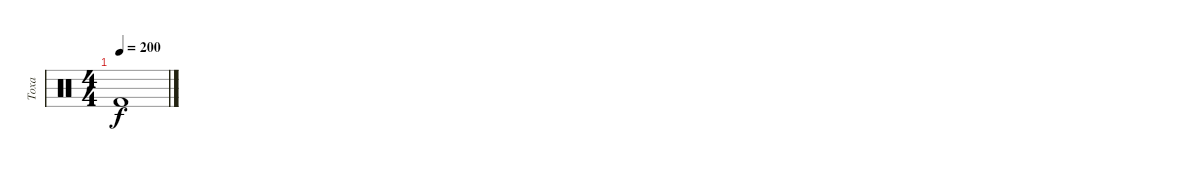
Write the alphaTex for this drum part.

\track ("Toxa" "Toxa") {instrument percussion}
\staff {score}
\articulation defaults
\ts (4 4)
\tempo 200
\clef neutral
\ks c "Kick (hit) 2".1{dy f}
